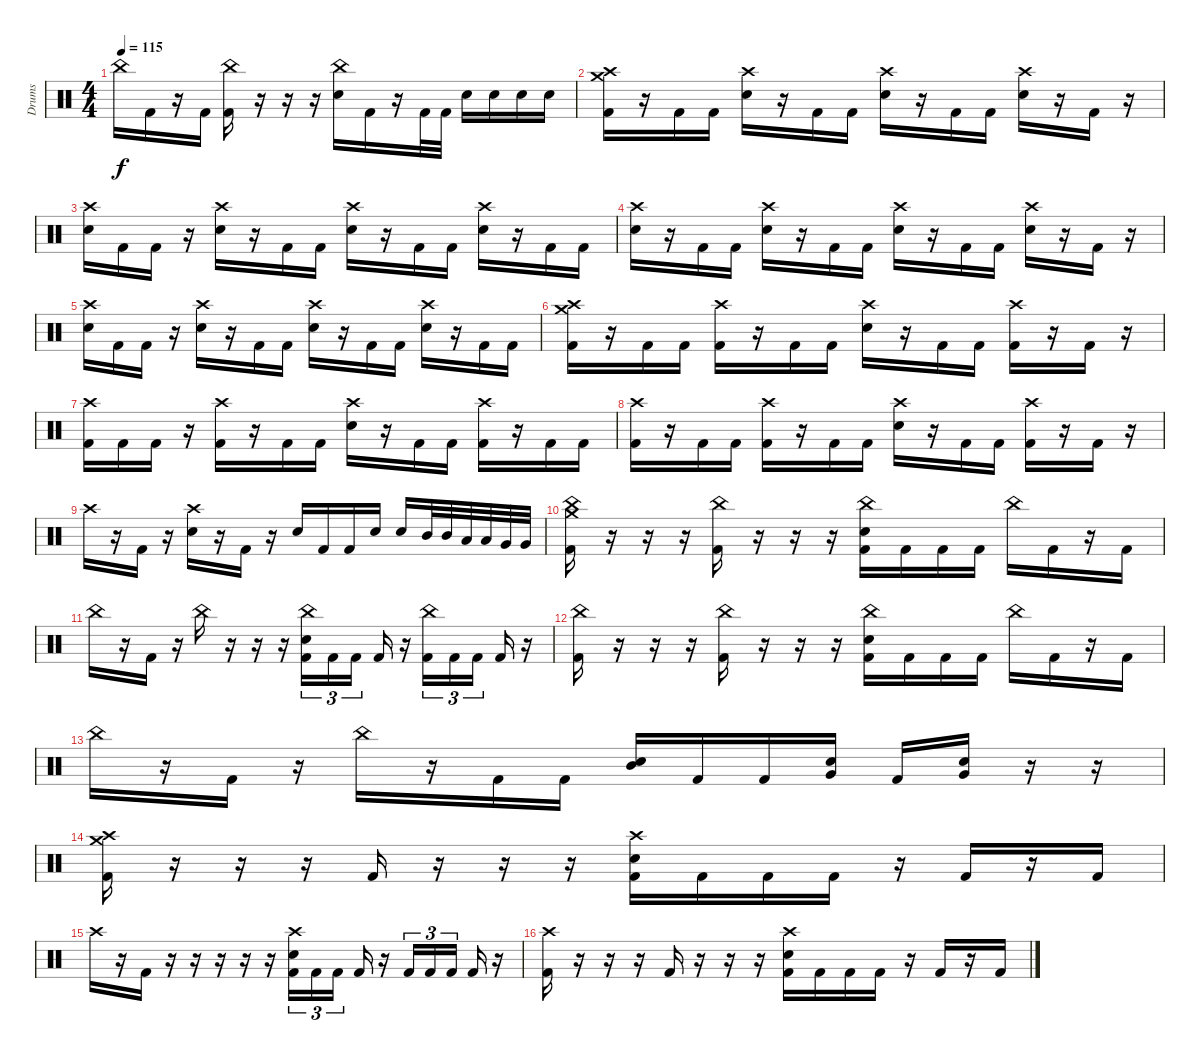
\track ("Drums" "Drums") {instrument percussion}
\staff {score}
\articulation defaults
\ts (4 4)
\tempo 115
\clef neutral
\ks c "China (hit)".16{dy f} "Kick (hit) 2".16
r.16 "Kick (hit) 2".16 ("China (hit)" "Kick (hit) 2").16 r.16 r.16 r.16 ("China (hit)" "Electric Snare (hit)").16 "Kick (hit) 2".16 r.16 "Kick (hit) 2".32 "Kick (hit) 2".32 "Electric Snare (hit)".16 "Electric Snare (hit)".16 "Electric Snare (hit)".16 "Electric Snare (hit)".16 |
("Crash medium (hit)" "Crash high (hit)" "Kick (hit) 2").16 r.16 "Kick (hit) 2".16 "Kick (hit) 2".16 ("Crash high (hit)" "Electric Snare (hit)").16 r.16 "Kick (hit) 2".16 "Kick (hit) 2".16 ("Crash high (hit)" "Electric Snare (hit)").16 r.16 "Kick (hit) 2".16 "Kick (hit) 2".16 ("Crash high (hit)" "Electric Snare (hit)").16 r.16 "Kick (hit) 2".16 r.16 |
("Crash high (hit)" "Electric Snare (hit)").16 "Kick (hit) 2".16 "Kick (hit) 2".16 r.16 ("Crash high (hit)" "Electric Snare (hit)").16 r.16 "Kick (hit) 2".16 "Kick (hit) 2".16 ("Crash high (hit)" "Electric Snare (hit)").16 r.16 "Kick (hit) 2".16 "Kick (hit) 2".16 ("Crash high (hit)" "Electric Snare (hit)").16 r.16 "Kick (hit) 2".16 "Kick (hit) 2".16 |
("Crash high (hit)" "Electric Snare (hit)").16 r.16 "Kick (hit) 2".16 "Kick (hit) 2".16 ("Crash high (hit)" "Electric Snare (hit)").16 r.16 "Kick (hit) 2".16 "Kick (hit) 2".16 ("Crash high (hit)" "Electric Snare (hit)").16 r.16 "Kick (hit) 2".16 "Kick (hit) 2".16 ("Crash high (hit)" "Electric Snare (hit)").16 r.16 "Kick (hit) 2".16 r.16 |
("Crash high (hit)" "Electric Snare (hit)").16 "Kick (hit) 2".16 "Kick (hit) 2".16 r.16 ("Crash high (hit)" "Electric Snare (hit)").16 r.16 "Kick (hit) 2".16 "Kick (hit) 2".16 ("Crash high (hit)" "Electric Snare (hit)").16 r.16 "Kick (hit) 2".16 "Kick (hit) 2".16 ("Crash high (hit)" "Electric Snare (hit)").16 r.16 "Kick (hit) 2".16 "Kick (hit) 2".16 |
("Crash medium (hit)" "Crash high (hit)" "Kick (hit) 2").16 r.16 "Kick (hit) 2".16 "Kick (hit) 2".16 ("Crash high (hit)" "Kick (hit) 2").16 r.16 "Kick (hit) 2".16 "Kick (hit) 2".16 ("Crash high (hit)" "Electric Snare (hit)").16 r.16 "Kick (hit) 2".16 "Kick (hit) 2".16 ("Crash high (hit)" "Kick (hit) 2").16 r.16 "Kick (hit) 2".16 r.16 |
("Crash high (hit)" "Kick (hit) 2").16 "Kick (hit) 2".16 "Kick (hit) 2".16 r.16 ("Crash high (hit)" "Kick (hit) 2").16 r.16 "Kick (hit) 2".16 "Kick (hit) 2".16 ("Crash high (hit)" "Electric Snare (hit)").16 r.16 "Kick (hit) 2".16 "Kick (hit) 2".16 ("Crash high (hit)" "Kick (hit) 2").16 r.16 "Kick (hit) 2".16 "Kick (hit) 2".16 |
("Crash high (hit)" "Kick (hit) 2").16 r.16 "Kick (hit) 2".16 "Kick (hit) 2".16 ("Crash high (hit)" "Kick (hit) 2").16 r.16 "Kick (hit) 2".16 "Kick (hit) 2".16 ("Crash high (hit)" "Electric Snare (hit)").16 r.16 "Kick (hit) 2".16 "Kick (hit) 2".16 ("Crash high (hit)" "Kick (hit) 2").16 r.16 "Kick (hit) 2".16 r.16 |
"Crash high (hit)".16 r.16 "Kick (hit) 2".16 r.16 ("Crash high (hit)" "Electric Snare (hit)").16 r.16 "Kick (hit) 2".16 r.16 "Electric Snare (hit)".16 "Kick (hit) 2".16 "Kick (hit) 2".16 "Electric Snare (hit)".16 "Electric Snare (hit)".16 "Mid Tom (hit)".32 "Mid Tom (hit)".32 "Low Tom (hit)".32 "Low Tom (hit)".32 "Very Low Tom (hit)".32 "Very Low Tom (hit)".32 |
("Crash medium (hit)" "China (hit)" "Kick (hit) 2").16 r.16 r.16 r.16 ("China (hit)" "Kick (hit) 2").16 r.16 r.16 r.16 ("China (hit)" "Electric Snare (hit)" "Kick (hit) 2").16 "Kick (hit) 2".16 "Kick (hit) 2".16 "Kick (hit) 2".16 "China (hit)".16 "Kick (hit) 2".16 r.16 "Kick (hit) 2".16 |
"China (hit)".16 r.16 "Kick (hit) 2".16 r.16 "China (hit)".16 r.16 r.16 r.16 ("China (hit)" "Electric Snare (hit)" "Kick (hit) 2").16{tu (3 2)} "Kick (hit) 2".16{tu (3 2)} "Kick (hit) 2".16{tu (3 2) beam splitsecondary} "Kick (hit) 2".16 r.16 ("China (hit)" "Kick (hit) 2").16{tu (3 2)} "Kick (hit) 2".16{tu (3 2)} "Kick (hit) 2".16{tu (3 2) beam splitsecondary} "Kick (hit) 2".16 r.16 |
("China (hit)" "Kick (hit) 2").16 r.16 r.16 r.16 ("China (hit)" "Kick (hit) 2").16 r.16 r.16 r.16 ("China (hit)" "Electric Snare (hit)" "Kick (hit) 2").16 "Kick (hit) 2".16 "Kick (hit) 2".16 "Kick (hit) 2".16 "China (hit)".16 "Kick (hit) 2".16 r.16 "Kick (hit) 2".16 |
"China (hit)".16 r.16 "Kick (hit) 2".16 r.16 "China (hit)".16 r.16 "Kick (hit) 2".16 "Kick (hit) 2".16 ("Electric Snare (hit)" "Mid Tom (hit)").16 "Kick (hit) 2".16 "Kick (hit) 2".16 ("Electric Snare (hit)" "Very Low Tom (hit)").16 "Kick (hit) 2".16 ("Electric Snare (hit)" "Very Low Tom (hit)").16 r.16 r.16 |
("Crash medium (hit)" "Crash high (hit)" "Kick (hit) 2").16 r.16 r.16 r.16 "Kick (hit) 2".16 r.16 r.16 r.16 ("Crash high (hit)" "Electric Snare (hit)" "Kick (hit) 2").16 "Kick (hit) 2".16 "Kick (hit) 2".16 "Kick (hit) 2".16 r.16 "Kick (hit) 2".16 r.16 "Kick (hit) 2".16 |
"Crash high (hit)".16 r.16 "Kick (hit) 2".16 r.16 r.16 r.16 r.16 r.16 ("Crash high (hit)" "Electric Snare (hit)" "Kick (hit) 2").16{tu (3 2)} "Kick (hit) 2".16{tu (3 2)} "Kick (hit) 2".16{tu (3 2) beam splitsecondary} "Kick (hit) 2".16 r.16 "Kick (hit) 2".16{tu (3 2)} "Kick (hit) 2".16{tu (3 2)} "Kick (hit) 2".16{tu (3 2) beam splitsecondary} "Kick (hit) 2".16 r.16 |
("Crash high (hit)" "Kick (hit) 2").16 r.16 r.16 r.16 "Kick (hit) 2".16 r.16 r.16 r.16 ("Crash high (hit)" "Electric Snare (hit)" "Kick (hit) 2").16 "Kick (hit) 2".16 "Kick (hit) 2".16 "Kick (hit) 2".16 r.16 "Kick (hit) 2".16 r.16 "Kick (hit) 2".16
